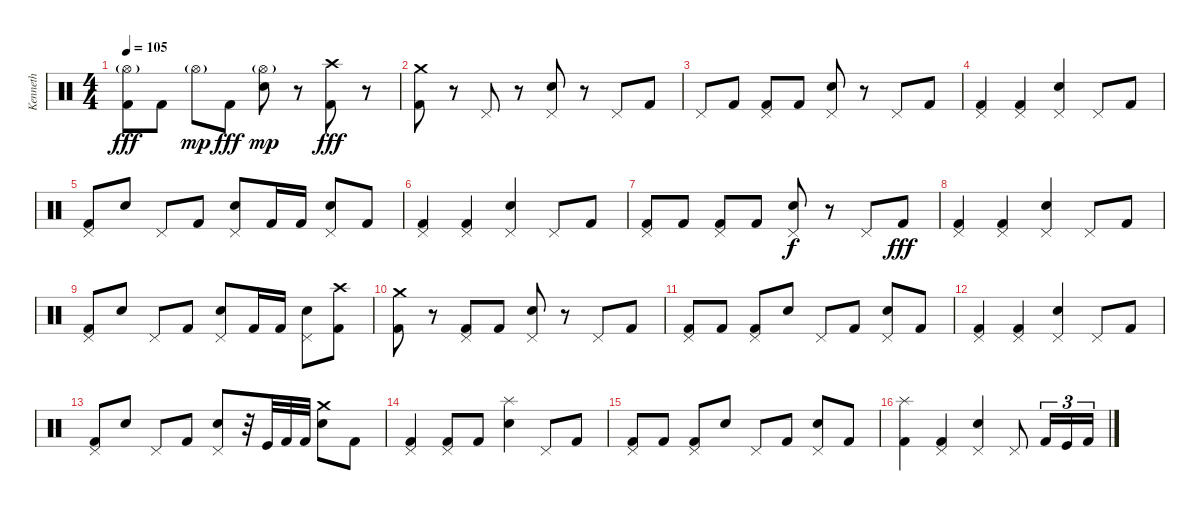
\track ("Kenneth" "Kenneth") {instrument percussion}
\staff {score}
\articulation defaults
\ts (4 4)
\tempo 105
\clef neutral
\ks c
("Hi-Hat (open)"{g} "Kick (hit) 2").8{dy fff} "Kick (hit) 2".8 "Hi-Hat (open)"{g}.8{dy mp} "Kick (hit) 2".8{dy fff} ("Hi-Hat (open)"{g} "Electric Snare (hit)").8{dy mp} r.8 ("Crash high (hit)" "Kick (hit) 2").8{dy fff} r.8 |
("Crash medium (hit)" "Kick (hit) 2").8 r.8 "Pedal Hi-Hat (hit)".8 r.8 ("Pedal Hi-Hat (hit)" "Electric Snare (hit)").8 r.8 "Pedal Hi-Hat (hit)".8 "Kick (hit) 2".8 |
"Pedal Hi-Hat (hit)".8 "Kick (hit) 2".8 ("Pedal Hi-Hat (hit)" "Kick (hit) 2").8 "Kick (hit) 2".8 ("Pedal Hi-Hat (hit)" "Electric Snare (hit)").8 r.8 "Pedal Hi-Hat (hit)".8 "Kick (hit) 2".8 |
("Pedal Hi-Hat (hit)" "Kick (hit) 2").4 ("Pedal Hi-Hat (hit)" "Kick (hit) 2").4 ("Pedal Hi-Hat (hit)" "Electric Snare (hit)").4 "Pedal Hi-Hat (hit)".8 "Kick (hit) 2".8 |
("Pedal Hi-Hat (hit)" "Kick (hit) 2").8 "Electric Snare (hit)".8 "Pedal Hi-Hat (hit)".8 "Kick (hit) 2".8 ("Pedal Hi-Hat (hit)" "Electric Snare (hit)").8 "Kick (hit) 2".16 "Kick (hit) 2".16 ("Pedal Hi-Hat (hit)" "Electric Snare (hit)").8 "Kick (hit) 2".8 |
("Pedal Hi-Hat (hit)" "Kick (hit) 2").4 ("Pedal Hi-Hat (hit)" "Kick (hit) 2").4 ("Pedal Hi-Hat (hit)" "Electric Snare (hit)").4 "Pedal Hi-Hat (hit)".8 "Kick (hit) 2".8 |
("Pedal Hi-Hat (hit)" "Kick (hit) 2").8 "Kick (hit) 2".8 ("Pedal Hi-Hat (hit)" "Kick (hit) 2").8 "Kick (hit) 2".8 ("Pedal Hi-Hat (hit)" "Electric Snare (hit)").8{dy f} r.8 "Pedal Hi-Hat (hit)".8 "Kick (hit) 2".8{dy fff} |
("Pedal Hi-Hat (hit)" "Kick (hit) 2").4 ("Pedal Hi-Hat (hit)" "Kick (hit) 2").4 ("Pedal Hi-Hat (hit)" "Electric Snare (hit)").4 "Pedal Hi-Hat (hit)".8 "Kick (hit) 2".8 |
("Pedal Hi-Hat (hit)" "Kick (hit) 2").8 "Electric Snare (hit)".8 "Pedal Hi-Hat (hit)".8 "Kick (hit) 2".8 ("Pedal Hi-Hat (hit)" "Electric Snare (hit)").8 "Kick (hit) 2".16 "Kick (hit) 2".16 ("Pedal Hi-Hat (hit)" "Electric Snare (hit)").8 ("Crash high (hit)" "Kick (hit) 2").8 |
("Crash medium (hit)" "Kick (hit) 2").8 r.8 ("Pedal Hi-Hat (hit)" "Kick (hit) 2").8 "Kick (hit) 2".8 ("Pedal Hi-Hat (hit)" "Electric Snare (hit)").8 r.8 "Pedal Hi-Hat (hit)".8 "Kick (hit) 2".8 |
("Pedal Hi-Hat (hit)" "Kick (hit) 2").8 "Kick (hit) 2".8 ("Pedal Hi-Hat (hit)" "Kick (hit) 2").8 "Electric Snare (hit)".8 "Pedal Hi-Hat (hit)".8 "Kick (hit) 2".8 ("Pedal Hi-Hat (hit)" "Electric Snare (hit)").8 "Kick (hit) 2".8 |
("Pedal Hi-Hat (hit)" "Kick (hit) 2").4 ("Pedal Hi-Hat (hit)" "Kick (hit) 2").4 ("Pedal Hi-Hat (hit)" "Electric Snare (hit)").4 "Pedal Hi-Hat (hit)".8 "Kick (hit) 2".8 |
("Pedal Hi-Hat (hit)" "Kick (hit) 2").8 "Electric Snare (hit)".8 "Pedal Hi-Hat (hit)".8 "Kick (hit) 2".8 ("Pedal Hi-Hat (hit)" "Electric Snare (hit)").8 r.32 "Kick (hit)".32 "Kick (hit) 2".32 "Kick (hit) 2".32 ("Crash medium (hit)" "Electric Snare (hit)").8 "Kick (hit) 2".8 |
("Pedal Hi-Hat (hit)" "Kick (hit) 2").4 ("Pedal Hi-Hat (hit)" "Kick (hit) 2").8 "Kick (hit) 2".8 ("Splash (hit)" "Electric Snare (hit)").4 "Pedal Hi-Hat (hit)".8 "Kick (hit) 2".8 |
("Pedal Hi-Hat (hit)" "Kick (hit) 2").8 "Kick (hit) 2".8 ("Pedal Hi-Hat (hit)" "Kick (hit) 2").8 "Electric Snare (hit)".8 "Pedal Hi-Hat (hit)".8 "Kick (hit) 2".8 ("Pedal Hi-Hat (hit)" "Electric Snare (hit)").8 "Kick (hit) 2".8 |
("Splash (hit)" "Kick (hit) 2").4 ("Pedal Hi-Hat (hit)" "Kick (hit) 2").4 ("Pedal Hi-Hat (hit)" "Electric Snare (hit)").4 "Pedal Hi-Hat (hit)".8 "Kick (hit) 2".16{tu (3 2)} "Kick (hit)".16{tu (3 2)} "Kick (hit) 2".16{tu (3 2)}
